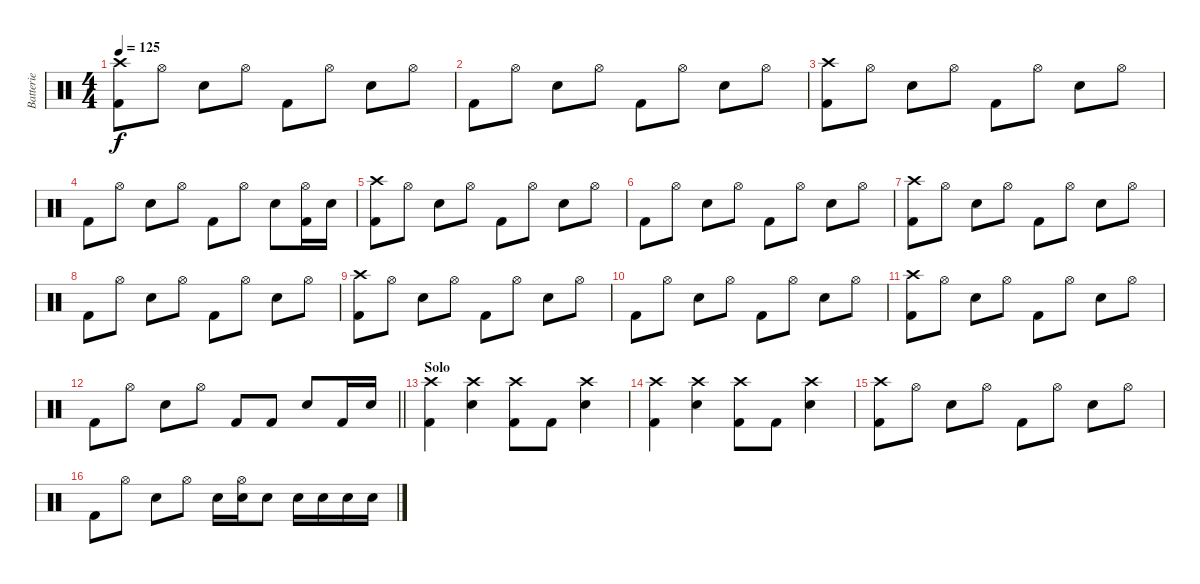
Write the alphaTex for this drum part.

\track ("Batterie" "Batterie") {instrument percussion}
\staff {score}
\articulation defaults
\ts (4 4)
\tempo 125
\clef neutral
\ks c
("Crash high (hit)" "Kick (hit) 2").8{dy f} "Hi-Hat (open)".8 "Electric Snare (hit)".8 "Hi-Hat (open)".8 "Kick (hit) 2".8 "Hi-Hat (open)".8 "Electric Snare (hit)".8 "Hi-Hat (open)".8 |
"Kick (hit) 2".8 "Hi-Hat (open)".8 "Electric Snare (hit)".8 "Hi-Hat (open)".8 "Kick (hit) 2".8 "Hi-Hat (open)".8 "Electric Snare (hit)".8 "Hi-Hat (open)".8 |
("Crash high (hit)" "Kick (hit) 2").8 "Hi-Hat (open)".8 "Electric Snare (hit)".8 "Hi-Hat (open)".8 "Kick (hit) 2".8 "Hi-Hat (open)".8 "Electric Snare (hit)".8 "Hi-Hat (open)".8 |
"Kick (hit) 2".8 "Hi-Hat (open)".8 "Electric Snare (hit)".8 "Hi-Hat (open)".8 "Kick (hit) 2".8 "Hi-Hat (open)".8 "Electric Snare (hit)".8 ("Hi-Hat (open)" "Kick (hit) 2").16 "Electric Snare (hit)".16 |
("Crash high (hit)" "Kick (hit) 2").8 "Hi-Hat (open)".8 "Electric Snare (hit)".8 "Hi-Hat (open)".8 "Kick (hit) 2".8 "Hi-Hat (open)".8 "Electric Snare (hit)".8 "Hi-Hat (open)".8 |
"Kick (hit) 2".8 "Hi-Hat (open)".8 "Electric Snare (hit)".8 "Hi-Hat (open)".8 "Kick (hit) 2".8 "Hi-Hat (open)".8 "Electric Snare (hit)".8 "Hi-Hat (open)".8 |
("Crash high (hit)" "Kick (hit) 2").8 "Hi-Hat (open)".8 "Electric Snare (hit)".8 "Hi-Hat (open)".8 "Kick (hit) 2".8 "Hi-Hat (open)".8 "Electric Snare (hit)".8 "Hi-Hat (open)".8 |
"Kick (hit) 2".8 "Hi-Hat (open)".8 "Electric Snare (hit)".8 "Hi-Hat (open)".8 "Kick (hit) 2".8 "Hi-Hat (open)".8 "Electric Snare (hit)".8 "Hi-Hat (open)".8 |
("Crash high (hit)" "Kick (hit) 2").8 "Hi-Hat (open)".8 "Electric Snare (hit)".8 "Hi-Hat (open)".8 "Kick (hit) 2".8 "Hi-Hat (open)".8 "Electric Snare (hit)".8 "Hi-Hat (open)".8 |
"Kick (hit) 2".8 "Hi-Hat (open)".8 "Electric Snare (hit)".8 "Hi-Hat (open)".8 "Kick (hit) 2".8 "Hi-Hat (open)".8 "Electric Snare (hit)".8 "Hi-Hat (open)".8 |
("Crash high (hit)" "Kick (hit) 2").8 "Hi-Hat (open)".8 "Electric Snare (hit)".8 "Hi-Hat (open)".8 "Kick (hit) 2".8 "Hi-Hat (open)".8 "Electric Snare (hit)".8 "Hi-Hat (open)".8 |
\barLineRight lightlight "Kick (hit) 2".8 "Hi-Hat (open)".8 "Electric Snare (hit)".8 "Hi-Hat (open)".8 "Kick (hit) 2".8 "Kick (hit) 2".8 "Electric Snare (hit)".8 "Kick (hit) 2".16 "Electric Snare (hit)".16
|
\section ("" "Solo")
("Crash high (hit)" "Kick (hit) 2").4 ("Crash high (hit)" "Electric Snare (hit)").4 ("Crash high (hit)" "Kick (hit) 2").8 "Kick (hit) 2".8 ("Crash high (hit)" "Electric Snare (hit)").4 |
("Crash high (hit)" "Kick (hit) 2").4 ("Crash high (hit)" "Electric Snare (hit)").4 ("Crash high (hit)" "Kick (hit) 2").8 "Kick (hit) 2".8 ("Crash high (hit)" "Electric Snare (hit)").4 |
("Crash high (hit)" "Kick (hit) 2").8 "Hi-Hat (open)".8 "Electric Snare (hit)".8 "Hi-Hat (open)".8 "Kick (hit) 2".8 "Hi-Hat (open)".8 "Electric Snare (hit)".8 "Hi-Hat (open)".8 |
"Kick (hit) 2".8 "Hi-Hat (open)".8 "Electric Snare (hit)".8 "Hi-Hat (open)".8 "Electric Snare (hit)".16 ("Hi-Hat (open)" "Electric Snare (hit)").16 "Electric Snare (hit)".8 "Electric Snare (hit)".16 "Electric Snare (hit)".16 "Electric Snare (hit)".16 "Electric Snare (hit)".16
